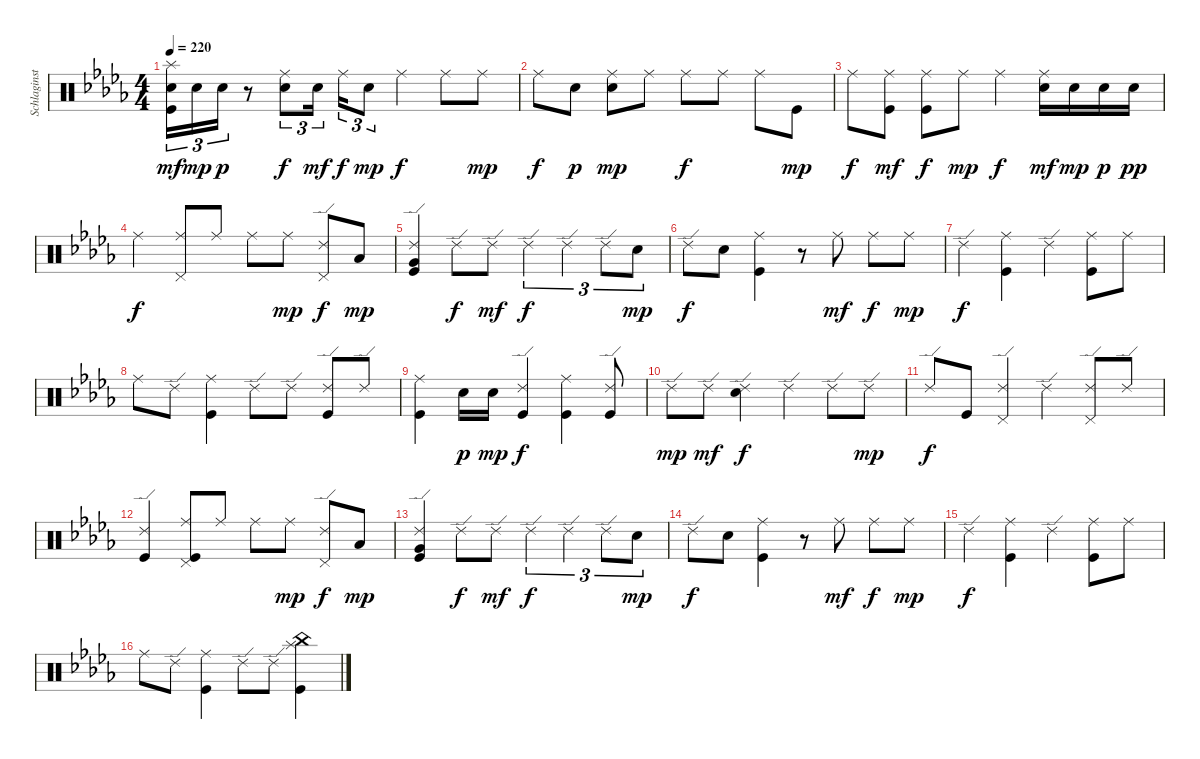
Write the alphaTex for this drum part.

\track ("Schlaginstrumente - Auswahl" "Schlaginst") {instrument percussion}
\staff {score}
\articulation defaults
\ts (4 4)
\tempo 220
\clef neutral
\ks bbminor
("Splash (hit)" "Snare (hit) 2" "Kick (hit)").16{tu (3 2) dy mf} "Snare (hit) 2".16{tu (3 2) dy mp} "Snare (hit) 2".16{tu (3 2) dy p} r.8 ("Ride (middle)" "Snare (hit) 2").8{tu (3 2) dy f} "Snare (hit) 2".16{tu (3 2) dy mf beam splitsecondary} "Ride (middle)".16{tu (3 2) dy f} "Snare (hit) 2".8{tu (3 2) dy mp} "Ride (middle)".4{dy f} "Ride (middle)".8 "Ride (middle)".8{dy mp} |
"Ride (middle)".8{dy f} "Snare (hit) 2".8{dy p} ("Ride (middle)" "Snare (hit) 2").8{dy mp} "Ride (middle)".8 "Ride (middle)".8{dy f} "Ride (middle)".8 "Ride (middle)".8 "Kick (hit)".8{dy mp} |
"Ride (middle)".8{dy f} ("Ride (middle)" "Kick (hit)").8{dy mf} ("Ride (middle)" "Kick (hit)").8{dy f} "Ride (middle)".8{dy mp} "Ride (middle)".4{dy f} ("Ride (middle)" "Snare (hit) 2").16{dy mf} "Snare (hit) 2".16{dy mp} "Snare (hit) 2".16{dy p} "Snare (hit) 2".16{dy pp} |
"Ride (middle)".4{dy f} ("Ride (middle)" "Pedal Hi-Hat (hit)").8 "Ride (middle)".8 "Ride (middle)".8 "Ride (middle)".8{dy mp} ("Ride (edge) 2" "Pedal Hi-Hat (hit)").8{dy f} "Low Tom (hit)".8{dy mp} |
("Ride (edge) 2" "Very Low Tom (hit)" "Kick (hit)").4 "Ride (edge) 2".8{dy f} "Ride (edge) 2".8{dy mf} "Ride (edge) 2".4{tu (3 2) dy f} "Ride (edge) 2".4{tu (3 2)} "Ride (edge) 2".8{tu (3 2)} "Snare (hit) 2".8{tu (3 2) dy mp} |
"Ride (edge) 2".8{dy f} "Snare (hit) 2".8 ("Ride (middle)" "Kick (hit)").4 r.8 "Ride (middle)".8{dy mf} "Ride (middle)".8{dy f} "Ride (middle)".8{dy mp} |
"Ride (edge) 2".4{dy f} ("Ride (middle)" "Kick (hit)").4 "Ride (edge) 2".4 ("Ride (middle)" "Kick (hit)").8 "Ride (middle)".8 |
"Ride (middle)".8 "Ride (edge) 2".8 ("Ride (middle)" "Kick (hit)").4 "Ride (edge) 2".8 "Ride (edge) 2".8 ("Ride (edge) 2" "Kick (hit)").8 "Ride (edge) 2".8 |
("Ride (middle)" "Kick (hit)").4 "Snare (hit) 2".16{dy p} "Snare (hit) 2".16{dy mp} ("Ride (edge) 2" "Kick (hit)").4{dy f} ("Ride (middle)" "Kick (hit)").4 ("Ride (edge) 2" "Kick (hit)").8 |
"Ride (edge) 2".8{dy mp} "Ride (edge) 2".8{dy mf} ("Ride (edge) 2" "Snare (hit) 2").4{dy f} "Ride (edge) 2".4 "Ride (edge) 2".8 "Ride (edge) 2".8{dy mp} |
"Ride (edge) 2".8{dy f} "Kick (hit)".8 ("Ride (edge) 2" "Pedal Hi-Hat (hit)").4 "Ride (edge) 2".4 ("Ride (edge) 2" "Pedal Hi-Hat (hit)").8 "Ride (edge) 2".8 |
("Ride (edge) 2" "Kick (hit)").4 ("Ride (middle)" "Pedal Hi-Hat (hit)" "Kick (hit)").8 "Ride (middle)".8 "Ride (middle)".8 "Ride (middle)".8{dy mp} ("Ride (edge) 2" "Pedal Hi-Hat (hit)").8{dy f} "Low Tom (hit)".8{dy mp} |
("Ride (edge) 2" "Very Low Tom (hit)" "Kick (hit)").4 "Ride (edge) 2".8{dy f} "Ride (edge) 2".8{dy mf} "Ride (edge) 2".4{tu (3 2) dy f} "Ride (edge) 2".4{tu (3 2)} "Ride (edge) 2".8{tu (3 2)} "Snare (hit) 2".8{tu (3 2) dy mp} |
"Ride (edge) 2".8{dy f} "Snare (hit) 2".8 ("Ride (middle)" "Kick (hit)").4 r.8 "Ride (middle)".8{dy mf} "Ride (middle)".8{dy f} "Ride (middle)".8{dy mp} |
"Ride (edge) 2".4{dy f} ("Ride (middle)" "Kick (hit)").4 "Ride (edge) 2".4 ("Ride (middle)" "Kick (hit)").8 "Ride (middle)".8 |
"Ride (middle)".8 "Ride (edge) 2".8 ("Ride (middle)" "Kick (hit)").4 "Ride (edge) 2".8 "Ride (edge) 2".8 ("China (hit)" "Splash (hit)" "Kick (hit)").4
